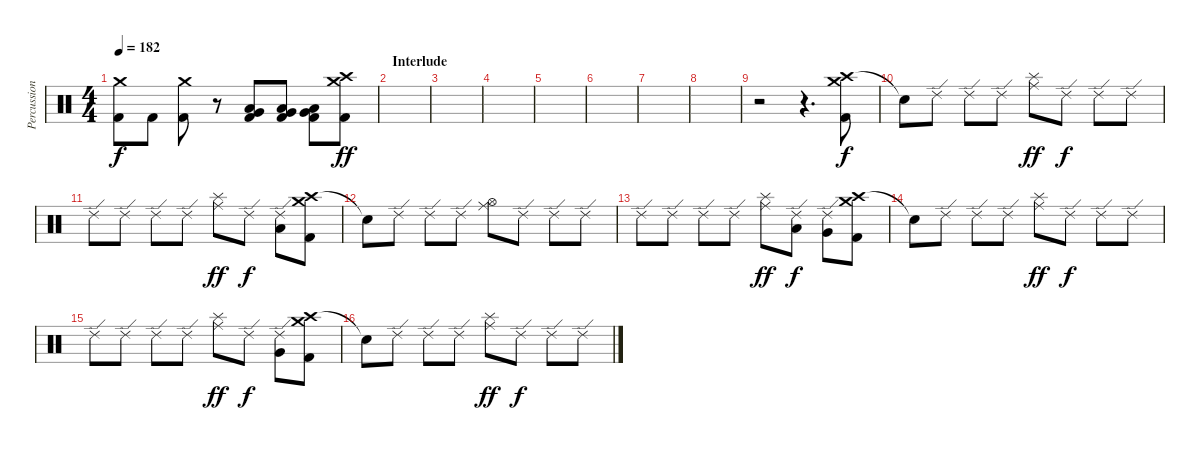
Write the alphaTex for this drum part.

\track ("Percussions" "Percussion") {instrument percussion}
\staff {score}
\articulation defaults
\ts (4 4)
\tempo 182
\clef neutral
\ks c
("Crash medium (hit)" "Kick (hit) 2").8{dy f} "Kick (hit) 2".8 ("Crash medium (hit)" "Kick (hit) 2").8 r.8 ("Low Tom (hit)" "Very Low Tom (hit)" "Kick (hit) 2").8 ("Low Tom (hit)" "Very Low Tom (hit)" "Kick (hit) 2").8 ("Low Floor Tom (hit)" "Very Low Tom (hit)" "Kick (hit) 2").8 ("Crash high (hit)" "Crash medium (hit)" "Kick (hit) 2").8{dy ff} |
\section ("" "Interlude")
|
|
|
|
|
|
|
r.2 r.4{d} ("Crash high (hit)" "Crash medium (hit)" "Kick (hit) 2").8{dy f} |
"Snare (hit)"{t}.8 "Ride (edge) 2".8 "Ride (edge) 2".8 "Ride (edge) 2".8 ("Ride (middle)" "Splash (hit)").8{dy ff} "Ride (edge) 2".8{dy f} "Ride (edge) 2".8 "Ride (edge) 2".8 |
"Ride (edge) 2".8 "Ride (edge) 2".8 "Ride (edge) 2".8 "Ride (edge) 2".8 ("Ride (middle)" "Splash (hit)").8{dy ff} "Ride (edge) 2".8{dy f} ("Ride (edge) 2" "Low Tom (hit)").8 ("Crash high (hit)" "Crash medium (hit)" "Kick (hit) 2").8 |
"Snare (hit)"{t}.8 "Ride (edge) 2".8 "Ride (edge) 2".8 "Ride (edge) 2".8 ("Ride (middle)" "Hi-Hat (open)").8 "Ride (edge) 2".8 "Ride (edge) 2".8 "Ride (edge) 2".8 |
"Ride (edge) 2".8 "Ride (edge) 2".8 "Ride (edge) 2".8 "Ride (edge) 2".8 ("Ride (middle)" "Splash (hit)").8{dy ff} ("Ride (edge) 2" "Low Tom (hit)").8{dy f} ("Ride (edge) 2" "Very Low Tom (hit)").8 ("Crash high (hit)" "Crash medium (hit)" "Kick (hit) 2").8 |
"Snare (hit)"{t}.8 "Ride (edge) 2".8 "Ride (edge) 2".8 "Ride (edge) 2".8 ("Ride (middle)" "Splash (hit)").8{dy ff} "Ride (edge) 2".8{dy f} "Ride (edge) 2".8 "Ride (edge) 2".8 |
"Ride (edge) 2".8 "Ride (edge) 2".8 "Ride (edge) 2".8 "Ride (edge) 2".8 ("Ride (middle)" "Splash (hit)").8{dy ff} "Ride (edge) 2".8{dy f} ("Ride (edge) 2" "Very Low Tom (hit)").8 ("Crash high (hit)" "Crash medium (hit)" "Kick (hit) 2").8 |
"Snare (hit)"{t}.8 "Ride (edge) 2".8 "Ride (edge) 2".8 "Ride (edge) 2".8 ("Ride (middle)" "Splash (hit)").8{dy ff} "Ride (edge) 2".8{dy f} "Ride (edge) 2".8 "Ride (edge) 2".8
